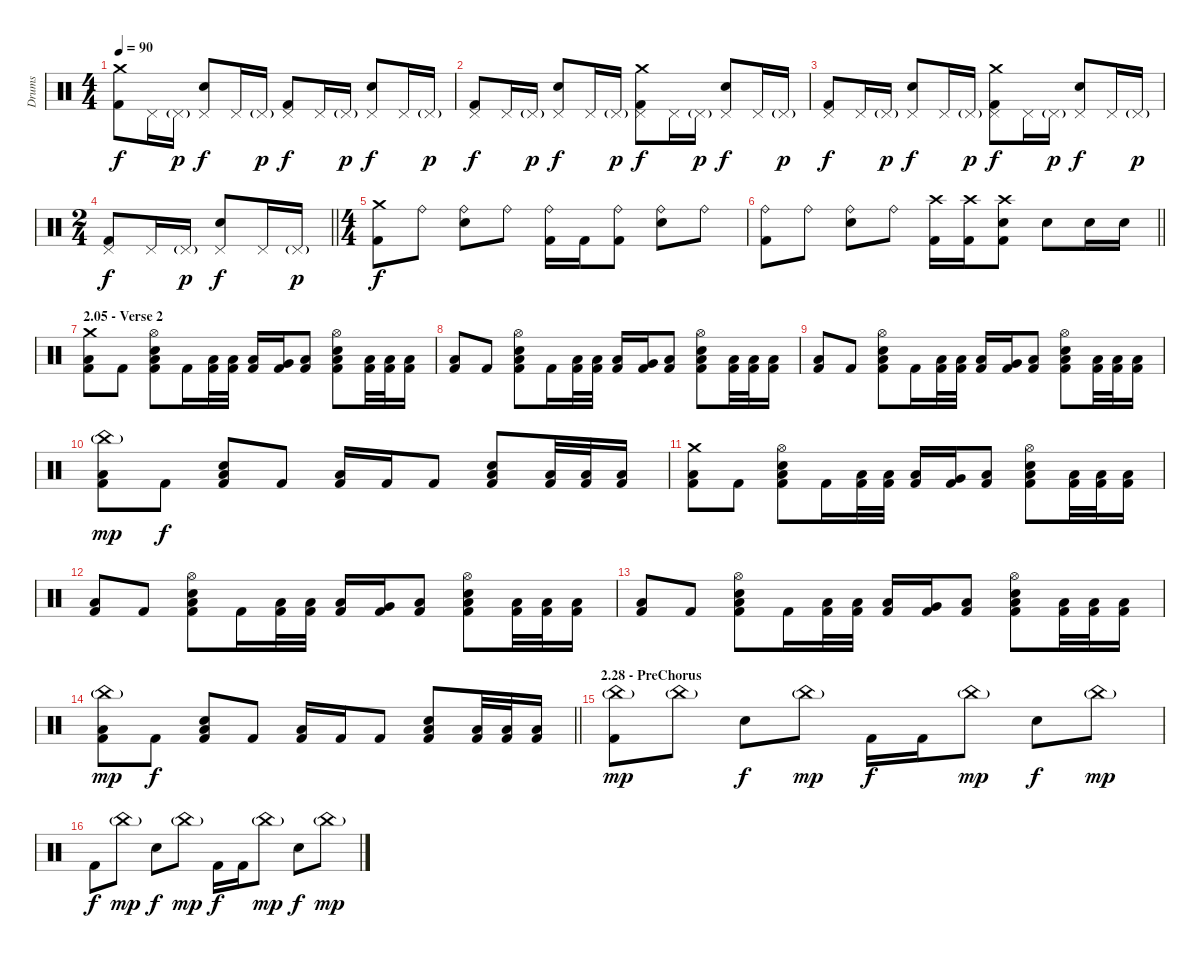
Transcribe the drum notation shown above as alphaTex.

\track ("Drums" "Drums") {instrument percussion}
\staff {score}
\articulation defaults
\ts (4 4)
\tempo 90
\clef neutral
\ks c
("Crash medium (hit)" "Kick (hit) 2").8{dy f} "Pedal Hi-Hat (hit)".16 "Pedal Hi-Hat (hit)"{g}.16{dy p} ("Pedal Hi-Hat (hit)" "Electric Snare (hit)").8{dy f} "Pedal Hi-Hat (hit)".16 "Pedal Hi-Hat (hit)"{g}.16{dy p} ("Pedal Hi-Hat (hit)" "Kick (hit) 2").8{dy f} "Pedal Hi-Hat (hit)".16 "Pedal Hi-Hat (hit)"{g}.16{dy p} ("Pedal Hi-Hat (hit)" "Electric Snare (hit)").8{dy f} "Pedal Hi-Hat (hit)".16 "Pedal Hi-Hat (hit)"{g}.16{dy p} |
("Pedal Hi-Hat (hit)" "Kick (hit) 2").8{dy f} "Pedal Hi-Hat (hit)".16 "Pedal Hi-Hat (hit)"{g}.16{dy p} ("Pedal Hi-Hat (hit)" "Electric Snare (hit)").8{dy f} "Pedal Hi-Hat (hit)".16 "Pedal Hi-Hat (hit)"{g}.16{dy p} ("Crash medium (hit)" "Pedal Hi-Hat (hit)" "Kick (hit) 2").8{dy f} "Pedal Hi-Hat (hit)".16 "Pedal Hi-Hat (hit)"{g}.16{dy p} ("Pedal Hi-Hat (hit)" "Electric Snare (hit)").8{dy f} "Pedal Hi-Hat (hit)".16 "Pedal Hi-Hat (hit)"{g}.16{dy p} |
("Pedal Hi-Hat (hit)" "Kick (hit) 2").8{dy f} "Pedal Hi-Hat (hit)".16 "Pedal Hi-Hat (hit)"{g}.16{dy p} ("Pedal Hi-Hat (hit)" "Electric Snare (hit)").8{dy f} "Pedal Hi-Hat (hit)".16 "Pedal Hi-Hat (hit)"{g}.16{dy p} ("Crash medium (hit)" "Pedal Hi-Hat (hit)" "Kick (hit) 2").8{dy f} "Pedal Hi-Hat (hit)".16 "Pedal Hi-Hat (hit)"{g}.16{dy p} ("Pedal Hi-Hat (hit)" "Electric Snare (hit)").8{dy f} "Pedal Hi-Hat (hit)".16 "Pedal Hi-Hat (hit)"{g}.16{dy p} |
\ts (2 4)
\barLineRight lightlight
("Pedal Hi-Hat (hit)" "Kick (hit) 2").8{dy f} "Pedal Hi-Hat (hit)".16 "Pedal Hi-Hat (hit)"{g}.16{dy p} ("Pedal Hi-Hat (hit)" "Electric Snare (hit)").8{dy f} "Pedal Hi-Hat (hit)".16 "Pedal Hi-Hat (hit)"{g}.16{dy p} |
\ts (4 4)
("Crash medium (hit)" "Kick (hit) 2").8{dy f} "Ride (bell)".8 ("Ride (bell)" "Electric Snare (hit)").8 "Ride (bell)".8 ("Ride (bell)" "Kick (hit) 2").16 "Kick (hit) 2".16 ("Ride (bell)" "Kick (hit) 2").8 ("Ride (bell)" "Electric Snare (hit)").8 "Ride (bell)".8 |
\barLineRight lightlight
("Ride (bell)" "Kick (hit) 2").8 "Ride (bell)".8 ("Ride (bell)" "Electric Snare (hit)").8 "Ride (bell)".8 ("Crash high (hit)" "Kick (hit) 2").16 ("Crash high (hit)" "Kick (hit) 2").16 ("Crash high (hit)" "Electric Snare (hit)" "Kick (hit) 2").8 "Electric Snare (hit)".8 "Electric Snare (hit)".16 "Electric Snare (hit)".16 |
\section ("" "2.05 - Verse 2")
("Crash medium (hit)" "Low Floor Tom (hit)" "Kick (hit) 2").8 "Kick (hit) 2".8 ("Hi-Hat (open)" "Electric Snare (hit)" "Low Floor Tom (hit)" "Kick (hit) 2").8 "Kick (hit) 2".16 ("Low Tom (hit)" "Kick (hit) 2").32 ("Low Tom (hit)" "Kick (hit) 2").32 ("Low Tom (hit)" "Kick (hit) 2").16 ("Very Low Tom (hit)" "Kick (hit) 2").16 ("Low Floor Tom (hit)" "Kick (hit) 2").8 ("Hi-Hat (open)" "Electric Snare (hit)" "Low Floor Tom (hit)" "Kick (hit) 2").8 ("Low Tom (hit)" "Kick (hit) 2").32 ("Low Tom (hit)" "Kick (hit) 2").32 ("Low Tom (hit)" "Kick (hit) 2").16 |
("Low Floor Tom (hit)" "Kick (hit) 2").8 "Kick (hit) 2".8 ("Hi-Hat (open)" "Electric Snare (hit)" "Low Floor Tom (hit)" "Kick (hit) 2").8 "Kick (hit) 2".16 ("Low Tom (hit)" "Kick (hit) 2").32 ("Low Tom (hit)" "Kick (hit) 2").32 ("Low Tom (hit)" "Kick (hit) 2").16 ("Very Low Tom (hit)" "Kick (hit) 2").16 ("Low Floor Tom (hit)" "Kick (hit) 2").8 ("Hi-Hat (open)" "Electric Snare (hit)" "Low Floor Tom (hit)" "Kick (hit) 2").8 ("Low Tom (hit)" "Kick (hit) 2").32 ("Low Tom (hit)" "Kick (hit) 2").32 ("Low Tom (hit)" "Kick (hit) 2").16 |
("Low Floor Tom (hit)" "Kick (hit) 2").8 "Kick (hit) 2".8 ("Hi-Hat (open)" "Electric Snare (hit)" "Low Floor Tom (hit)" "Kick (hit) 2").8 "Kick (hit) 2".16 ("Low Tom (hit)" "Kick (hit) 2").32 ("Low Tom (hit)" "Kick (hit) 2").32 ("Low Tom (hit)" "Kick (hit) 2").16 ("Very Low Tom (hit)" "Kick (hit) 2").16 ("Low Floor Tom (hit)" "Kick (hit) 2").8 ("Hi-Hat (open)" "Electric Snare (hit)" "Low Floor Tom (hit)" "Kick (hit) 2").8 ("Low Tom (hit)" "Kick (hit) 2").32 ("Low Tom (hit)" "Kick (hit) 2").32 ("Low Tom (hit)" "Kick (hit) 2").16 |
("China (hit)"{g} "Low Floor Tom (hit)" "Kick (hit) 2").8{dy mp} "Kick (hit) 2".8{dy f} ("Electric Snare (hit)" "Low Floor Tom (hit)" "Kick (hit) 2").8 "Kick (hit) 2".8 ("Low Floor Tom (hit)" "Kick (hit) 2").16 "Kick (hit) 2".16 "Kick (hit) 2".8 ("Electric Snare (hit)" "Low Floor Tom (hit)" "Kick (hit) 2").8 ("Low Tom (hit)" "Kick (hit) 2").32 ("Low Tom (hit)" "Kick (hit) 2").32 ("Low Tom (hit)" "Kick (hit) 2").16 |
("Crash medium (hit)" "Low Floor Tom (hit)" "Kick (hit) 2").8 "Kick (hit) 2".8 ("Hi-Hat (open)" "Electric Snare (hit)" "Low Floor Tom (hit)" "Kick (hit) 2").8 "Kick (hit) 2".16 ("Low Tom (hit)" "Kick (hit) 2").32 ("Low Tom (hit)" "Kick (hit) 2").32 ("Low Tom (hit)" "Kick (hit) 2").16 ("Very Low Tom (hit)" "Kick (hit) 2").16 ("Low Floor Tom (hit)" "Kick (hit) 2").8 ("Hi-Hat (open)" "Electric Snare (hit)" "Low Floor Tom (hit)" "Kick (hit) 2").8 ("Low Tom (hit)" "Kick (hit) 2").32 ("Low Tom (hit)" "Kick (hit) 2").32 ("Low Tom (hit)" "Kick (hit) 2").16 |
("Low Floor Tom (hit)" "Kick (hit) 2").8 "Kick (hit) 2".8 ("Hi-Hat (open)" "Electric Snare (hit)" "Low Floor Tom (hit)" "Kick (hit) 2").8 "Kick (hit) 2".16 ("Low Tom (hit)" "Kick (hit) 2").32 ("Low Tom (hit)" "Kick (hit) 2").32 ("Low Tom (hit)" "Kick (hit) 2").16 ("Very Low Tom (hit)" "Kick (hit) 2").16 ("Low Floor Tom (hit)" "Kick (hit) 2").8 ("Hi-Hat (open)" "Electric Snare (hit)" "Low Floor Tom (hit)" "Kick (hit) 2").8 ("Low Tom (hit)" "Kick (hit) 2").32 ("Low Tom (hit)" "Kick (hit) 2").32 ("Low Tom (hit)" "Kick (hit) 2").16 |
("Low Floor Tom (hit)" "Kick (hit) 2").8 "Kick (hit) 2".8 ("Hi-Hat (open)" "Electric Snare (hit)" "Low Floor Tom (hit)" "Kick (hit) 2").8 "Kick (hit) 2".16 ("Low Tom (hit)" "Kick (hit) 2").32 ("Low Tom (hit)" "Kick (hit) 2").32 ("Low Tom (hit)" "Kick (hit) 2").16 ("Very Low Tom (hit)" "Kick (hit) 2").16 ("Low Floor Tom (hit)" "Kick (hit) 2").8 ("Hi-Hat (open)" "Electric Snare (hit)" "Low Floor Tom (hit)" "Kick (hit) 2").8 ("Low Tom (hit)" "Kick (hit) 2").32 ("Low Tom (hit)" "Kick (hit) 2").32 ("Low Tom (hit)" "Kick (hit) 2").16 |
\barLineRight lightlight
("China (hit)"{g} "Low Floor Tom (hit)" "Kick (hit) 2").8{dy mp} "Kick (hit) 2".8{dy f} ("Electric Snare (hit)" "Low Floor Tom (hit)" "Kick (hit) 2").8 "Kick (hit) 2".8 ("Low Floor Tom (hit)" "Kick (hit) 2").16 "Kick (hit) 2".16 "Kick (hit) 2".8 ("Electric Snare (hit)" "Low Floor Tom (hit)" "Kick (hit) 2").8 ("Low Tom (hit)" "Kick (hit) 2").32 ("Low Tom (hit)" "Kick (hit) 2").32 ("Low Tom (hit)" "Kick (hit) 2").16 |
\section ("" "2.28 - PreChorus")
("China (hit)"{g} "Kick (hit) 2").8{dy mp} "China (hit)"{g}.8 "Electric Snare (hit)".8{dy f} "China (hit)"{g}.8{dy mp} "Kick (hit) 2".16{dy f} "Kick (hit) 2".16 "China (hit)"{g}.8{dy mp} "Electric Snare (hit)".8{dy f} "China (hit)"{g}.8{dy mp} |
"Kick (hit) 2".8{dy f} "China (hit)"{g}.8{dy mp} "Electric Snare (hit)".8{dy f} "China (hit)"{g}.8{dy mp} "Kick (hit) 2".16{dy f} "Kick (hit) 2".16 "China (hit)"{g}.8{dy mp} "Electric Snare (hit)".8{dy f} "China (hit)"{g}.8{dy mp}
